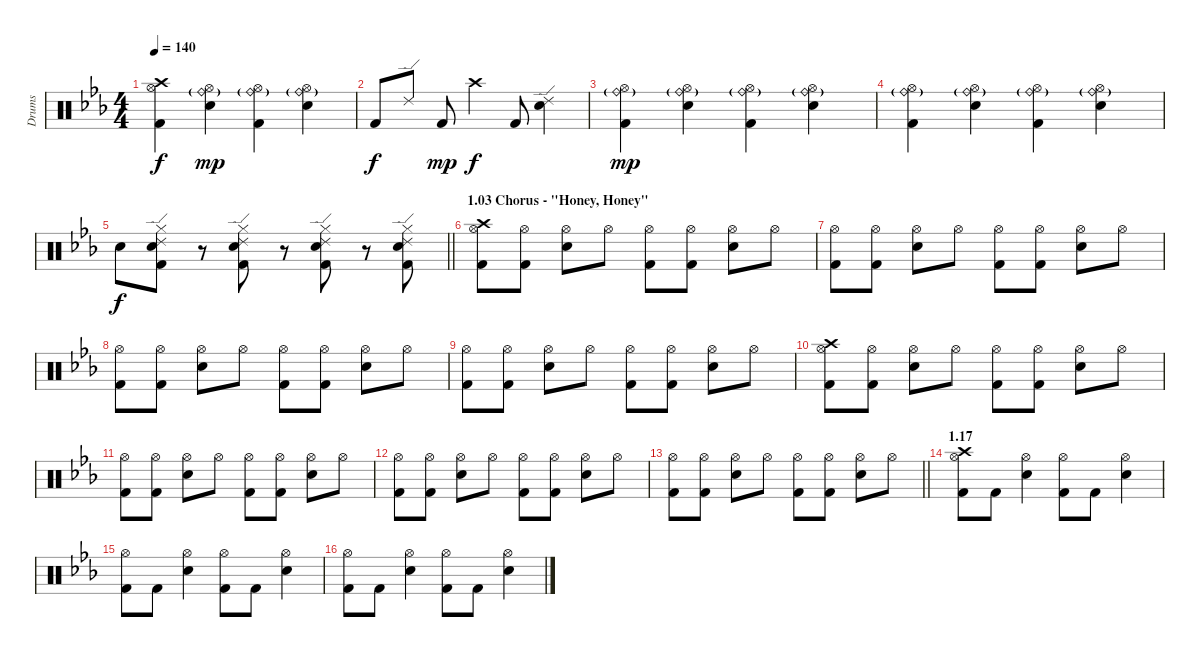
\track ("Drums" "Drums") {instrument percussion}
\staff {score}
\articulation defaults
\ts (4 4)
\tempo 140
\clef neutral
\ks cminor
("Crash high (hit)" "Hi-Hat (open)" "Kick (hit) 2").4{dy f} ("Ride (bell)"{g} "Hi-Hat (open)" "Electric Snare (hit)").4{dy mp} ("Ride (bell)"{g} "Hi-Hat (open)" "Kick (hit) 2").4 ("Ride (bell)"{g} "Hi-Hat (open)" "Electric Snare (hit)").4 |
"Kick (hit) 2".8{dy f} "Ride (edge) 2".8 "Kick (hit) 2".8{dy mp} "Crash high (hit)".4{dy f} "Kick (hit) 2".8 ("Ride (edge) 2" "Electric Snare (hit)").4 |
("Ride (bell)"{g} "Hi-Hat (open)" "Kick (hit) 2").4{dy mp} ("Ride (bell)"{g} "Hi-Hat (open)" "Electric Snare (hit)").4 ("Ride (bell)"{g} "Hi-Hat (open)" "Kick (hit) 2").4 ("Ride (bell)"{g} "Hi-Hat (open)" "Electric Snare (hit)").4 |
("Ride (bell)"{g} "Hi-Hat (open)" "Kick (hit) 2").4 ("Ride (bell)"{g} "Hi-Hat (open)" "Electric Snare (hit)").4 ("Ride (bell)"{g} "Hi-Hat (open)" "Kick (hit) 2").4 ("Ride (bell)"{g} "Hi-Hat (open)" "Electric Snare (hit)").4 |
\barLineRight lightlight "Electric Snare (hit)".8{dy f}
("Ride (edge) 2" "Hi-Hat (closed)" "Electric Snare (hit)" "Kick (hit) 2").8 r.8 ("Ride (edge) 2" "Hi-Hat (closed)" "Electric Snare (hit)" "Kick (hit) 2").8 r.8 ("Ride (edge) 2" "Hi-Hat (closed)" "Electric Snare (hit)" "Kick (hit) 2").8 r.8 ("Ride (edge) 2" "Hi-Hat (closed)" "Electric Snare (hit)" "Kick (hit) 2").8 |
\section ("" "1.03 Chorus - \"Honey, Honey\"")
("Crash high (hit)" "Hi-Hat (open)" "Kick (hit) 2").8 ("Hi-Hat (open)" "Kick (hit) 2").8 ("Hi-Hat (open)" "Electric Snare (hit)").8 "Hi-Hat (open)".8 ("Hi-Hat (open)" "Kick (hit) 2").8 ("Hi-Hat (open)" "Kick (hit) 2").8 ("Hi-Hat (open)" "Electric Snare (hit)").8 "Hi-Hat (open)".8 |
("Hi-Hat (open)" "Kick (hit) 2").8 ("Hi-Hat (open)" "Kick (hit) 2").8 ("Hi-Hat (open)" "Electric Snare (hit)").8 "Hi-Hat (open)".8 ("Hi-Hat (open)" "Kick (hit) 2").8 ("Hi-Hat (open)" "Kick (hit) 2").8 ("Hi-Hat (open)" "Electric Snare (hit)").8 "Hi-Hat (open)".8 |
("Hi-Hat (open)" "Kick (hit) 2").8 ("Hi-Hat (open)" "Kick (hit) 2").8 ("Hi-Hat (open)" "Electric Snare (hit)").8 "Hi-Hat (open)".8 ("Hi-Hat (open)" "Kick (hit) 2").8 ("Hi-Hat (open)" "Kick (hit) 2").8 ("Hi-Hat (open)" "Electric Snare (hit)").8 "Hi-Hat (open)".8 |
("Hi-Hat (open)" "Kick (hit) 2").8 ("Hi-Hat (open)" "Kick (hit) 2").8 ("Hi-Hat (open)" "Electric Snare (hit)").8 "Hi-Hat (open)".8 ("Hi-Hat (open)" "Kick (hit) 2").8 ("Hi-Hat (open)" "Kick (hit) 2").8 ("Hi-Hat (open)" "Electric Snare (hit)").8 "Hi-Hat (open)".8 |
("Crash high (hit)" "Hi-Hat (open)" "Kick (hit) 2").8 ("Hi-Hat (open)" "Kick (hit) 2").8 ("Hi-Hat (open)" "Electric Snare (hit)").8 "Hi-Hat (open)".8 ("Hi-Hat (open)" "Kick (hit) 2").8 ("Hi-Hat (open)" "Kick (hit) 2").8 ("Hi-Hat (open)" "Electric Snare (hit)").8 "Hi-Hat (open)".8 |
("Hi-Hat (open)" "Kick (hit) 2").8 ("Hi-Hat (open)" "Kick (hit) 2").8 ("Hi-Hat (open)" "Electric Snare (hit)").8 "Hi-Hat (open)".8 ("Hi-Hat (open)" "Kick (hit) 2").8 ("Hi-Hat (open)" "Kick (hit) 2").8 ("Hi-Hat (open)" "Electric Snare (hit)").8 "Hi-Hat (open)".8 |
("Hi-Hat (open)" "Kick (hit) 2").8 ("Hi-Hat (open)" "Kick (hit) 2").8 ("Hi-Hat (open)" "Electric Snare (hit)").8 "Hi-Hat (open)".8 ("Hi-Hat (open)" "Kick (hit) 2").8 ("Hi-Hat (open)" "Kick (hit) 2").8 ("Hi-Hat (open)" "Electric Snare (hit)").8 "Hi-Hat (open)".8 |
\barLineRight lightlight
("Hi-Hat (open)" "Kick (hit) 2").8 ("Hi-Hat (open)" "Kick (hit) 2").8 ("Hi-Hat (open)" "Electric Snare (hit)").8 "Hi-Hat (open)".8 ("Hi-Hat (open)" "Kick (hit) 2").8 ("Hi-Hat (open)" "Kick (hit) 2").8 ("Hi-Hat (open)" "Electric Snare (hit)").8 "Hi-Hat (open)".8 |
\section ("" "1.17")
("Crash high (hit)" "Hi-Hat (open)" "Kick (hit) 2").8 "Kick (hit) 2".8 ("Hi-Hat (open)" "Electric Snare (hit)").4 ("Hi-Hat (open)" "Kick (hit) 2").8 "Kick (hit) 2".8 ("Hi-Hat (open)" "Electric Snare (hit)").4 |
("Hi-Hat (open)" "Kick (hit) 2").8 "Kick (hit) 2".8 ("Hi-Hat (open)" "Electric Snare (hit)").4 ("Hi-Hat (open)" "Kick (hit) 2").8 "Kick (hit) 2".8 ("Hi-Hat (open)" "Electric Snare (hit)").4 |
("Hi-Hat (open)" "Kick (hit) 2").8 "Kick (hit) 2".8 ("Hi-Hat (open)" "Electric Snare (hit)").4 ("Hi-Hat (open)" "Kick (hit) 2").8 "Kick (hit) 2".8 ("Hi-Hat (open)" "Electric Snare (hit)").4
